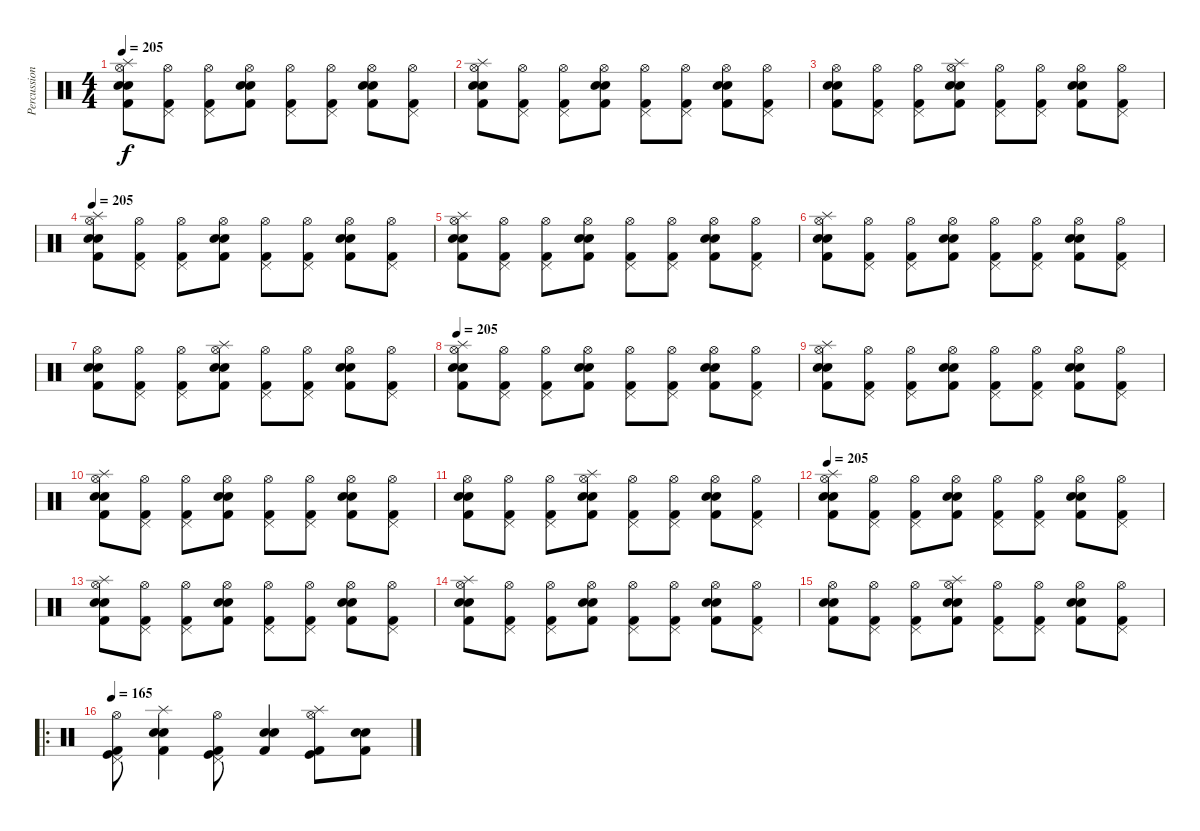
\track ("Percussions" "Percussion") {instrument percussion}
\staff {score}
\articulation defaults
\ts (4 4)
\tempo 205
\clef neutral
\ks c
("Splash (hit)" "Hi-Hat (open)" "Kick (hit) 2" "Snare (hit) 2" "Electric Snare (hit)").8{dy f} ("Hi-Hat (open)" "Pedal Hi-Hat (hit)" "Kick (hit) 2").8 ("Hi-Hat (open)" "Pedal Hi-Hat (hit)" "Kick (hit) 2").8 ("Hi-Hat (open)" "Kick (hit) 2" "Snare (hit) 2" "Electric Snare (hit)").8 ("Hi-Hat (open)" "Pedal Hi-Hat (hit)" "Kick (hit) 2").8 ("Hi-Hat (open)" "Pedal Hi-Hat (hit)" "Kick (hit) 2").8 ("Hi-Hat (open)" "Kick (hit) 2" "Snare (hit) 2" "Electric Snare (hit)").8 ("Hi-Hat (open)" "Pedal Hi-Hat (hit)" "Kick (hit) 2").8 |
("Splash (hit)" "Hi-Hat (open)" "Kick (hit) 2" "Snare (hit) 2" "Electric Snare (hit)").8 ("Hi-Hat (open)" "Pedal Hi-Hat (hit)" "Kick (hit) 2").8 ("Hi-Hat (open)" "Pedal Hi-Hat (hit)" "Kick (hit) 2").8 ("Hi-Hat (open)" "Kick (hit) 2" "Snare (hit) 2" "Electric Snare (hit)").8 ("Hi-Hat (open)" "Pedal Hi-Hat (hit)" "Kick (hit) 2").8 ("Hi-Hat (open)" "Pedal Hi-Hat (hit)" "Kick (hit) 2").8 ("Hi-Hat (open)" "Kick (hit) 2" "Snare (hit) 2" "Electric Snare (hit)").8 ("Hi-Hat (open)" "Pedal Hi-Hat (hit)" "Kick (hit) 2").8 |
("Hi-Hat (open)" "Kick (hit) 2" "Snare (hit) 2" "Electric Snare (hit)").8 ("Hi-Hat (open)" "Pedal Hi-Hat (hit)" "Kick (hit) 2").8 ("Hi-Hat (open)" "Pedal Hi-Hat (hit)" "Kick (hit) 2").8 ("Splash (hit)" "Hi-Hat (open)" "Kick (hit) 2" "Snare (hit) 2" "Electric Snare (hit)").8 ("Hi-Hat (open)" "Pedal Hi-Hat (hit)" "Kick (hit) 2").8 ("Hi-Hat (open)" "Pedal Hi-Hat (hit)" "Kick (hit) 2").8 ("Hi-Hat (open)" "Kick (hit) 2" "Snare (hit) 2" "Electric Snare (hit)").8 ("Hi-Hat (open)" "Pedal Hi-Hat (hit)" "Kick (hit) 2").8 |
\tempo 205
("Splash (hit)" "Hi-Hat (open)" "Kick (hit) 2" "Snare (hit) 2" "Electric Snare (hit)").8 ("Hi-Hat (open)" "Pedal Hi-Hat (hit)" "Kick (hit) 2").8 ("Hi-Hat (open)" "Pedal Hi-Hat (hit)" "Kick (hit) 2").8 ("Hi-Hat (open)" "Kick (hit) 2" "Snare (hit) 2" "Electric Snare (hit)").8 ("Hi-Hat (open)" "Pedal Hi-Hat (hit)" "Kick (hit) 2").8 ("Hi-Hat (open)" "Pedal Hi-Hat (hit)" "Kick (hit) 2").8 ("Hi-Hat (open)" "Kick (hit) 2" "Snare (hit) 2" "Electric Snare (hit)").8 ("Hi-Hat (open)" "Pedal Hi-Hat (hit)" "Kick (hit) 2").8 |
("Splash (hit)" "Hi-Hat (open)" "Kick (hit) 2" "Snare (hit) 2" "Electric Snare (hit)").8 ("Hi-Hat (open)" "Pedal Hi-Hat (hit)" "Kick (hit) 2").8 ("Hi-Hat (open)" "Pedal Hi-Hat (hit)" "Kick (hit) 2").8 ("Hi-Hat (open)" "Kick (hit) 2" "Snare (hit) 2" "Electric Snare (hit)").8 ("Hi-Hat (open)" "Pedal Hi-Hat (hit)" "Kick (hit) 2").8 ("Hi-Hat (open)" "Pedal Hi-Hat (hit)" "Kick (hit) 2").8 ("Hi-Hat (open)" "Kick (hit) 2" "Snare (hit) 2" "Electric Snare (hit)").8 ("Hi-Hat (open)" "Pedal Hi-Hat (hit)" "Kick (hit) 2").8 |
("Splash (hit)" "Hi-Hat (open)" "Kick (hit) 2" "Snare (hit) 2" "Electric Snare (hit)").8 ("Hi-Hat (open)" "Pedal Hi-Hat (hit)" "Kick (hit) 2").8 ("Hi-Hat (open)" "Pedal Hi-Hat (hit)" "Kick (hit) 2").8 ("Hi-Hat (open)" "Kick (hit) 2" "Snare (hit) 2" "Electric Snare (hit)").8 ("Hi-Hat (open)" "Pedal Hi-Hat (hit)" "Kick (hit) 2").8 ("Hi-Hat (open)" "Pedal Hi-Hat (hit)" "Kick (hit) 2").8 ("Hi-Hat (open)" "Kick (hit) 2" "Snare (hit) 2" "Electric Snare (hit)").8 ("Hi-Hat (open)" "Pedal Hi-Hat (hit)" "Kick (hit) 2").8 |
("Hi-Hat (open)" "Kick (hit) 2" "Snare (hit) 2" "Electric Snare (hit)").8 ("Hi-Hat (open)" "Pedal Hi-Hat (hit)" "Kick (hit) 2").8 ("Hi-Hat (open)" "Pedal Hi-Hat (hit)" "Kick (hit) 2").8 ("Splash (hit)" "Hi-Hat (open)" "Kick (hit) 2" "Snare (hit) 2" "Electric Snare (hit)").8 ("Hi-Hat (open)" "Pedal Hi-Hat (hit)" "Kick (hit) 2").8 ("Hi-Hat (open)" "Pedal Hi-Hat (hit)" "Kick (hit) 2").8 ("Hi-Hat (open)" "Kick (hit) 2" "Snare (hit) 2" "Electric Snare (hit)").8 ("Hi-Hat (open)" "Pedal Hi-Hat (hit)" "Kick (hit) 2").8 |
\tempo 205
("Splash (hit)" "Hi-Hat (open)" "Kick (hit) 2" "Snare (hit) 2" "Electric Snare (hit)").8 ("Hi-Hat (open)" "Pedal Hi-Hat (hit)" "Kick (hit) 2").8 ("Hi-Hat (open)" "Pedal Hi-Hat (hit)" "Kick (hit) 2").8 ("Hi-Hat (open)" "Kick (hit) 2" "Snare (hit) 2" "Electric Snare (hit)").8 ("Hi-Hat (open)" "Pedal Hi-Hat (hit)" "Kick (hit) 2").8 ("Hi-Hat (open)" "Pedal Hi-Hat (hit)" "Kick (hit) 2").8 ("Hi-Hat (open)" "Kick (hit) 2" "Snare (hit) 2" "Electric Snare (hit)").8 ("Hi-Hat (open)" "Pedal Hi-Hat (hit)" "Kick (hit) 2").8 |
("Splash (hit)" "Hi-Hat (open)" "Kick (hit) 2" "Snare (hit) 2" "Electric Snare (hit)").8 ("Hi-Hat (open)" "Pedal Hi-Hat (hit)" "Kick (hit) 2").8 ("Hi-Hat (open)" "Pedal Hi-Hat (hit)" "Kick (hit) 2").8 ("Hi-Hat (open)" "Kick (hit) 2" "Snare (hit) 2" "Electric Snare (hit)").8 ("Hi-Hat (open)" "Pedal Hi-Hat (hit)" "Kick (hit) 2").8 ("Hi-Hat (open)" "Pedal Hi-Hat (hit)" "Kick (hit) 2").8 ("Hi-Hat (open)" "Kick (hit) 2" "Snare (hit) 2" "Electric Snare (hit)").8 ("Hi-Hat (open)" "Pedal Hi-Hat (hit)" "Kick (hit) 2").8 |
("Splash (hit)" "Hi-Hat (open)" "Kick (hit) 2" "Snare (hit) 2" "Electric Snare (hit)").8 ("Hi-Hat (open)" "Pedal Hi-Hat (hit)" "Kick (hit) 2").8 ("Hi-Hat (open)" "Pedal Hi-Hat (hit)" "Kick (hit) 2").8 ("Hi-Hat (open)" "Kick (hit) 2" "Snare (hit) 2" "Electric Snare (hit)").8 ("Hi-Hat (open)" "Pedal Hi-Hat (hit)" "Kick (hit) 2").8 ("Hi-Hat (open)" "Pedal Hi-Hat (hit)" "Kick (hit) 2").8 ("Hi-Hat (open)" "Kick (hit) 2" "Snare (hit) 2" "Electric Snare (hit)").8 ("Hi-Hat (open)" "Pedal Hi-Hat (hit)" "Kick (hit) 2").8 |
("Hi-Hat (open)" "Kick (hit) 2" "Snare (hit) 2" "Electric Snare (hit)").8 ("Hi-Hat (open)" "Pedal Hi-Hat (hit)" "Kick (hit) 2").8 ("Hi-Hat (open)" "Pedal Hi-Hat (hit)" "Kick (hit) 2").8 ("Splash (hit)" "Hi-Hat (open)" "Kick (hit) 2" "Snare (hit) 2" "Electric Snare (hit)").8 ("Hi-Hat (open)" "Pedal Hi-Hat (hit)" "Kick (hit) 2").8 ("Hi-Hat (open)" "Pedal Hi-Hat (hit)" "Kick (hit) 2").8 ("Hi-Hat (open)" "Kick (hit) 2" "Snare (hit) 2" "Electric Snare (hit)").8 ("Hi-Hat (open)" "Pedal Hi-Hat (hit)" "Kick (hit) 2").8 |
\tempo 205
("Splash (hit)" "Hi-Hat (open)" "Kick (hit) 2" "Snare (hit) 2" "Electric Snare (hit)").8 ("Hi-Hat (open)" "Pedal Hi-Hat (hit)" "Kick (hit) 2").8 ("Hi-Hat (open)" "Pedal Hi-Hat (hit)" "Kick (hit) 2").8 ("Hi-Hat (open)" "Kick (hit) 2" "Snare (hit) 2" "Electric Snare (hit)").8 ("Hi-Hat (open)" "Pedal Hi-Hat (hit)" "Kick (hit) 2").8 ("Hi-Hat (open)" "Pedal Hi-Hat (hit)" "Kick (hit) 2").8 ("Hi-Hat (open)" "Kick (hit) 2" "Snare (hit) 2" "Electric Snare (hit)").8 ("Hi-Hat (open)" "Pedal Hi-Hat (hit)" "Kick (hit) 2").8 |
("Splash (hit)" "Hi-Hat (open)" "Kick (hit) 2" "Snare (hit) 2" "Electric Snare (hit)").8 ("Hi-Hat (open)" "Pedal Hi-Hat (hit)" "Kick (hit) 2").8 ("Hi-Hat (open)" "Pedal Hi-Hat (hit)" "Kick (hit) 2").8 ("Hi-Hat (open)" "Kick (hit) 2" "Snare (hit) 2" "Electric Snare (hit)").8 ("Hi-Hat (open)" "Pedal Hi-Hat (hit)" "Kick (hit) 2").8 ("Hi-Hat (open)" "Pedal Hi-Hat (hit)" "Kick (hit) 2").8 ("Hi-Hat (open)" "Kick (hit) 2" "Snare (hit) 2" "Electric Snare (hit)").8 ("Hi-Hat (open)" "Pedal Hi-Hat (hit)" "Kick (hit) 2").8 |
("Splash (hit)" "Hi-Hat (open)" "Kick (hit) 2" "Snare (hit) 2" "Electric Snare (hit)").8 ("Hi-Hat (open)" "Pedal Hi-Hat (hit)" "Kick (hit) 2").8 ("Hi-Hat (open)" "Pedal Hi-Hat (hit)" "Kick (hit) 2").8 ("Hi-Hat (open)" "Kick (hit) 2" "Snare (hit) 2" "Electric Snare (hit)").8 ("Hi-Hat (open)" "Pedal Hi-Hat (hit)" "Kick (hit) 2").8 ("Hi-Hat (open)" "Pedal Hi-Hat (hit)" "Kick (hit) 2").8 ("Hi-Hat (open)" "Kick (hit) 2" "Snare (hit) 2" "Electric Snare (hit)").8 ("Hi-Hat (open)" "Pedal Hi-Hat (hit)" "Kick (hit) 2").8 |
("Hi-Hat (open)" "Kick (hit) 2" "Snare (hit) 2" "Electric Snare (hit)").8 ("Hi-Hat (open)" "Pedal Hi-Hat (hit)" "Kick (hit) 2").8 ("Hi-Hat (open)" "Pedal Hi-Hat (hit)" "Kick (hit) 2").8 ("Splash (hit)" "Hi-Hat (open)" "Kick (hit) 2" "Snare (hit) 2" "Electric Snare (hit)").8 ("Hi-Hat (open)" "Pedal Hi-Hat (hit)" "Kick (hit) 2").8 ("Hi-Hat (open)" "Pedal Hi-Hat (hit)" "Kick (hit) 2").8 ("Hi-Hat (open)" "Kick (hit) 2" "Snare (hit) 2" "Electric Snare (hit)").8 ("Hi-Hat (open)" "Pedal Hi-Hat (hit)" "Kick (hit) 2").8 |
\ro
\tempo 165
("Hi-Hat (open)" "Pedal Hi-Hat (hit)" "Kick (hit) 2" "Kick (hit)").8 ("Kick (hit) 2" "Splash (hit)" "Snare (hit) 2" "Electric Snare (hit)").4 ("Hi-Hat (open)" "Pedal Hi-Hat (hit)" "Kick (hit) 2" "Kick (hit)").8 ("Kick (hit) 2" "Snare (hit) 2" "Electric Snare (hit)").4 ("Hi-Hat (open)" "Splash (hit)" "Kick (hit) 2" "Kick (hit)").8 ("Kick (hit) 2" "Snare (hit) 2" "Electric Snare (hit)").8
